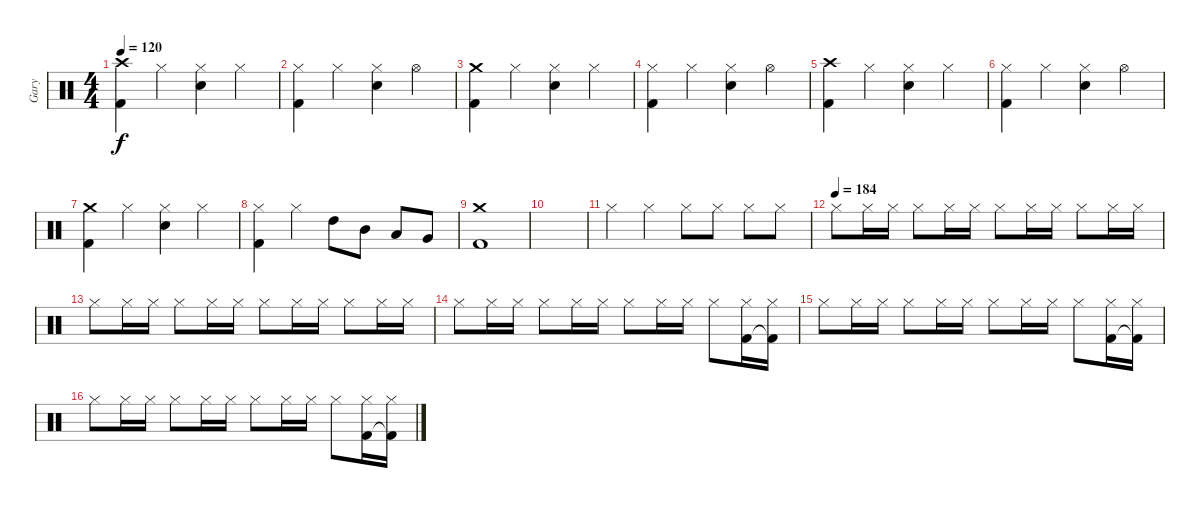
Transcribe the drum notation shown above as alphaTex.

\track ("Gary" "Gary") {instrument percussion}
\staff {score}
\articulation defaults
\ts (4 4)
\tempo 120
\clef neutral
\ks c
("Crash high (hit)" "Kick (hit) 2").4{dy f} "Hi-Hat (closed)".4 ("Hi-Hat (closed)" "Snare (hit) 2").4 "Hi-Hat (closed)".4 |
("Hi-Hat (closed)" "Kick (hit) 2").4 "Hi-Hat (closed)".4 ("Hi-Hat (closed)" "Snare (hit) 2").4 "Hi-Hat (open)".4 |
("Crash medium (hit)" "Kick (hit) 2").4 "Hi-Hat (closed)".4 ("Hi-Hat (closed)" "Snare (hit) 2").4 "Hi-Hat (closed)".4 |
("Hi-Hat (closed)" "Kick (hit) 2").4 "Hi-Hat (closed)".4 ("Hi-Hat (closed)" "Snare (hit) 2").4 "Hi-Hat (open)".4 |
("Crash high (hit)" "Kick (hit) 2").4 "Hi-Hat (closed)".4 ("Hi-Hat (closed)" "Snare (hit) 2").4 "Hi-Hat (closed)".4 |
("Hi-Hat (closed)" "Kick (hit) 2").4 "Hi-Hat (closed)".4 ("Hi-Hat (closed)" "Snare (hit) 2").4 "Hi-Hat (open)".4 |
("Crash medium (hit)" "Kick (hit) 2").4 "Hi-Hat (closed)".4 ("Hi-Hat (closed)" "Snare (hit) 2").4 "Hi-Hat (closed)".4 |
("Hi-Hat (closed)" "Kick (hit) 2").4 "Hi-Hat (closed)".4 "High Tom (hit)".8 "Mid Tom (hit)".8 "Low Tom (hit)".8 "Very Low Tom (hit)".8 |
("Crash medium (hit)" "Kick (hit) 2").1 |
|
"Hi-Hat (closed)".4 "Hi-Hat (closed)".4 "Hi-Hat (closed)".8 "Hi-Hat (closed)".8 "Hi-Hat (closed)".8 "Hi-Hat (closed)".8 |
\tempo (184)
"Hi-Hat (closed)".8 "Hi-Hat (closed)".16 "Hi-Hat (closed)".16 "Hi-Hat (closed)".8 "Hi-Hat (closed)".16 "Hi-Hat (closed)".16 "Hi-Hat (closed)".8 "Hi-Hat (closed)".16 "Hi-Hat (closed)".16 "Hi-Hat (closed)".8 "Hi-Hat (closed)".16 "Hi-Hat (closed)".16 |
"Hi-Hat (closed)".8 "Hi-Hat (closed)".16 "Hi-Hat (closed)".16 "Hi-Hat (closed)".8 "Hi-Hat (closed)".16 "Hi-Hat (closed)".16 "Hi-Hat (closed)".8 "Hi-Hat (closed)".16 "Hi-Hat (closed)".16 "Hi-Hat (closed)".8 "Hi-Hat (closed)".16 "Hi-Hat (closed)".16 |
"Hi-Hat (closed)".8 "Hi-Hat (closed)".16 "Hi-Hat (closed)".16 "Hi-Hat (closed)".8 "Hi-Hat (closed)".16 "Hi-Hat (closed)".16 "Hi-Hat (closed)".8 "Hi-Hat (closed)".16 "Hi-Hat (closed)".16 "Hi-Hat (closed)".8 ("Hi-Hat (closed)" "Kick (hit) 2").16 ("Hi-Hat (closed)" "Kick (hit) 2"{t}).16 |
"Hi-Hat (closed)".8 "Hi-Hat (closed)".16 "Hi-Hat (closed)".16 "Hi-Hat (closed)".8 "Hi-Hat (closed)".16 "Hi-Hat (closed)".16 "Hi-Hat (closed)".8 "Hi-Hat (closed)".16 "Hi-Hat (closed)".16 "Hi-Hat (closed)".8 ("Hi-Hat (closed)" "Kick (hit) 2").16 ("Hi-Hat (closed)" "Kick (hit) 2"{t}).16 |
"Hi-Hat (closed)".8 "Hi-Hat (closed)".16 "Hi-Hat (closed)".16 "Hi-Hat (closed)".8 "Hi-Hat (closed)".16 "Hi-Hat (closed)".16 "Hi-Hat (closed)".8 "Hi-Hat (closed)".16 "Hi-Hat (closed)".16 "Hi-Hat (closed)".8 ("Hi-Hat (closed)" "Kick (hit) 2").16 ("Hi-Hat (closed)" "Kick (hit) 2"{t}).16
